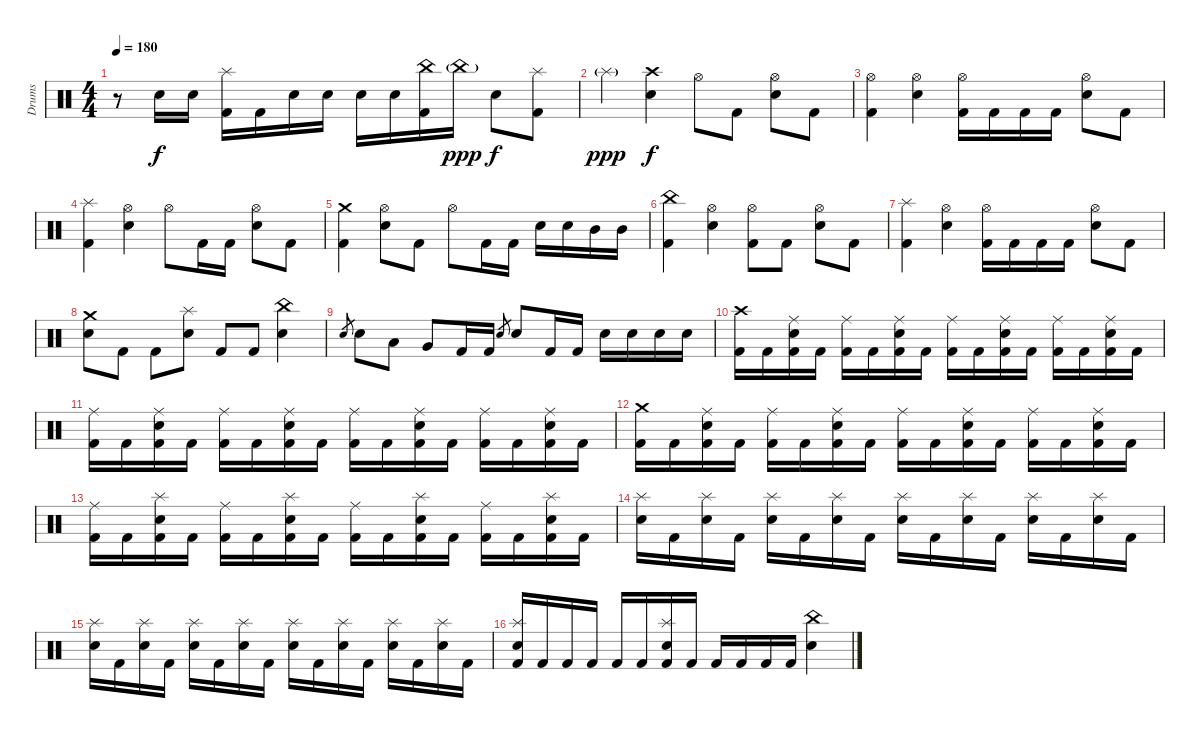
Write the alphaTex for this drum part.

\track ("Drums" "Drums") {instrument percussion}
\staff {score}
\articulation defaults
\ts (4 4)
\tempo 180
\clef neutral
\ks c
r.8{dy f} "Electric Snare (hit)".16 "Electric Snare (hit)".16 ("Splash (hit)" "Kick (hit) 2").16 "Kick (hit) 2".16 "Electric Snare (hit)".16 "Electric Snare (hit)".16 "Electric Snare (hit)".16 "Electric Snare (hit)".16 ("China (hit)" "Kick (hit) 2").16 "China (hit)"{g}.16{dy ppp} "Electric Snare (hit)".8{dy f} ("Splash (hit)" "Kick (hit) 2").8 |
"Splash (hit)"{g}.4{dy ppp} ("Crash high (hit)" "Electric Snare (hit)").4{dy f} "Hi-Hat (open)".8 "Kick (hit) 2".8 ("Hi-Hat (open)" "Electric Snare (hit)").8 "Kick (hit) 2".8 |
("Hi-Hat (open)" "Kick (hit) 2").4 ("Hi-Hat (open)" "Electric Snare (hit)").4 ("Hi-Hat (open)" "Kick (hit) 2").16 "Kick (hit) 2".16 "Kick (hit) 2".16 "Kick (hit) 2".16 ("Hi-Hat (open)" "Electric Snare (hit)").8 "Kick (hit) 2".8 |
("Splash (hit)" "Kick (hit) 2").4 ("Hi-Hat (open)" "Electric Snare (hit)").4 "Hi-Hat (open)".8 "Kick (hit) 2".16 "Kick (hit) 2".16 ("Hi-Hat (open)" "Electric Snare (hit)").8 "Kick (hit) 2".8 |
("Crash medium (hit)" "Kick (hit) 2").4 ("Hi-Hat (open)" "Electric Snare (hit)").8 "Kick (hit) 2".8 "Hi-Hat (open)".8 "Kick (hit) 2".16 "Kick (hit) 2".16 "Electric Snare (hit)".16 "Electric Snare (hit)".16 "Mid Tom (hit)".16 "Mid Tom (hit)".16 |
("China (hit)" "Kick (hit) 2").4 ("Hi-Hat (open)" "Electric Snare (hit)").4 ("Hi-Hat (open)" "Kick (hit) 2").8 "Kick (hit) 2".8 ("Hi-Hat (open)" "Electric Snare (hit)").8 "Kick (hit) 2".8 |
("Splash (hit)" "Kick (hit) 2").4 ("Hi-Hat (open)" "Electric Snare (hit)").4 ("Hi-Hat (open)" "Kick (hit) 2").16 "Kick (hit) 2".16 "Kick (hit) 2".16 "Kick (hit) 2".16 ("Hi-Hat (open)" "Electric Snare (hit)").8 "Kick (hit) 2".8 |
("Crash medium (hit)" "Electric Snare (hit)").8 "Kick (hit) 2".8 "Kick (hit) 2".8 ("Splash (hit)" "Electric Snare (hit)").8 "Kick (hit) 2".8 "Kick (hit) 2".8 ("China (hit)" "Electric Snare (hit)").4 |
"Electric Snare (hit)".8{gr} "Electric Snare (hit)".8 "Low Tom (hit)".8 "Very Low Tom (hit)".8 "Kick (hit) 2".16 "Kick (hit) 2".16 "Electric Snare (hit)".8{gr} "Electric Snare (hit)".8 "Kick (hit) 2".16 "Kick (hit) 2".16 "Electric Snare (hit)".16 "Electric Snare (hit)".16 "Electric Snare (hit)".16 "Electric Snare (hit)".16 |
("Crash high (hit)" "Kick (hit) 2").16 "Kick (hit) 2".16 ("Ride (middle)" "Electric Snare (hit)" "Kick (hit) 2").16 "Kick (hit) 2".16 ("Ride (middle)" "Kick (hit) 2").16 "Kick (hit) 2".16 ("Ride (middle)" "Electric Snare (hit)" "Kick (hit) 2").16 "Kick (hit) 2".16 ("Ride (middle)" "Kick (hit) 2").16 "Kick (hit) 2".16 ("Ride (middle)" "Electric Snare (hit)" "Kick (hit) 2").16 "Kick (hit) 2".16 ("Ride (middle)" "Kick (hit) 2").16 "Kick (hit) 2".16 ("Ride (middle)" "Electric Snare (hit)" "Kick (hit) 2").16 "Kick (hit) 2".16 |
("Ride (middle)" "Kick (hit) 2").16 "Kick (hit) 2".16 ("Ride (middle)" "Electric Snare (hit)" "Kick (hit) 2").16 "Kick (hit) 2".16 ("Ride (middle)" "Kick (hit) 2").16 "Kick (hit) 2".16 ("Ride (middle)" "Electric Snare (hit)" "Kick (hit) 2").16 "Kick (hit) 2".16 ("Ride (middle)" "Kick (hit) 2").16 "Kick (hit) 2".16 ("Ride (middle)" "Electric Snare (hit)" "Kick (hit) 2").16 "Kick (hit) 2".16 ("Ride (middle)" "Kick (hit) 2").16 "Kick (hit) 2".16 ("Ride (middle)" "Electric Snare (hit)" "Kick (hit) 2").16 "Kick (hit) 2".16 |
("Crash medium (hit)" "Kick (hit) 2").16 "Kick (hit) 2".16 ("Ride (middle)" "Electric Snare (hit)" "Kick (hit) 2").16 "Kick (hit) 2".16 ("Ride (middle)" "Kick (hit) 2").16 "Kick (hit) 2".16 ("Ride (middle)" "Electric Snare (hit)" "Kick (hit) 2").16 "Kick (hit) 2".16 ("Ride (middle)" "Kick (hit) 2").16 "Kick (hit) 2".16 ("Ride (middle)" "Electric Snare (hit)" "Kick (hit) 2").16 "Kick (hit) 2".16 ("Ride (middle)" "Kick (hit) 2").16 "Kick (hit) 2".16 ("Ride (middle)" "Electric Snare (hit)" "Kick (hit) 2").16 "Kick (hit) 2".16 |
("Ride (middle)" "Kick (hit) 2").16 "Kick (hit) 2".16 ("Splash (hit)" "Electric Snare (hit)" "Kick (hit) 2").16 "Kick (hit) 2".16 ("Ride (middle)" "Kick (hit) 2").16 "Kick (hit) 2".16 ("Splash (hit)" "Electric Snare (hit)" "Kick (hit) 2").16 "Kick (hit) 2".16 ("Ride (middle)" "Kick (hit) 2").16 "Kick (hit) 2".16 ("Splash (hit)" "Electric Snare (hit)" "Kick (hit) 2").16 "Kick (hit) 2".16 ("Ride (middle)" "Kick (hit) 2").16 "Kick (hit) 2".16 ("Splash (hit)" "Electric Snare (hit)" "Kick (hit) 2").16 "Kick (hit) 2".16 |
("Splash (hit)" "Electric Snare (hit)").16 "Kick (hit) 2".16 ("Splash (hit)" "Electric Snare (hit)").16 "Kick (hit) 2".16 ("Splash (hit)" "Electric Snare (hit)").16 "Kick (hit) 2".16 ("Splash (hit)" "Electric Snare (hit)").16 "Kick (hit) 2".16 ("Splash (hit)" "Electric Snare (hit)").16 "Kick (hit) 2".16 ("Splash (hit)" "Electric Snare (hit)").16 "Kick (hit) 2".16 ("Splash (hit)" "Electric Snare (hit)").16 "Kick (hit) 2".16 ("Splash (hit)" "Electric Snare (hit)").16 "Kick (hit) 2".16 |
("Splash (hit)" "Electric Snare (hit)").16 "Kick (hit) 2".16 ("Splash (hit)" "Electric Snare (hit)").16 "Kick (hit) 2".16 ("Splash (hit)" "Electric Snare (hit)").16 "Kick (hit) 2".16 ("Splash (hit)" "Electric Snare (hit)").16 "Kick (hit) 2".16 ("Splash (hit)" "Electric Snare (hit)").16 "Kick (hit) 2".16 ("Splash (hit)" "Electric Snare (hit)").16 "Kick (hit) 2".16 ("Splash (hit)" "Electric Snare (hit)").16 "Kick (hit) 2".16 ("Splash (hit)" "Electric Snare (hit)").16 "Kick (hit) 2".16 |
("Splash (hit)" "Electric Snare (hit)" "Kick (hit) 2").16 "Kick (hit) 2".16 "Kick (hit) 2".16 "Kick (hit) 2".16 "Kick (hit) 2".16 "Kick (hit) 2".16 ("Splash (hit)" "Electric Snare (hit)" "Kick (hit) 2").16 "Kick (hit) 2".16 "Kick (hit) 2".16 "Kick (hit) 2".16 "Kick (hit) 2".16 "Kick (hit) 2".16 ("China (hit)" "Electric Snare (hit)").4
